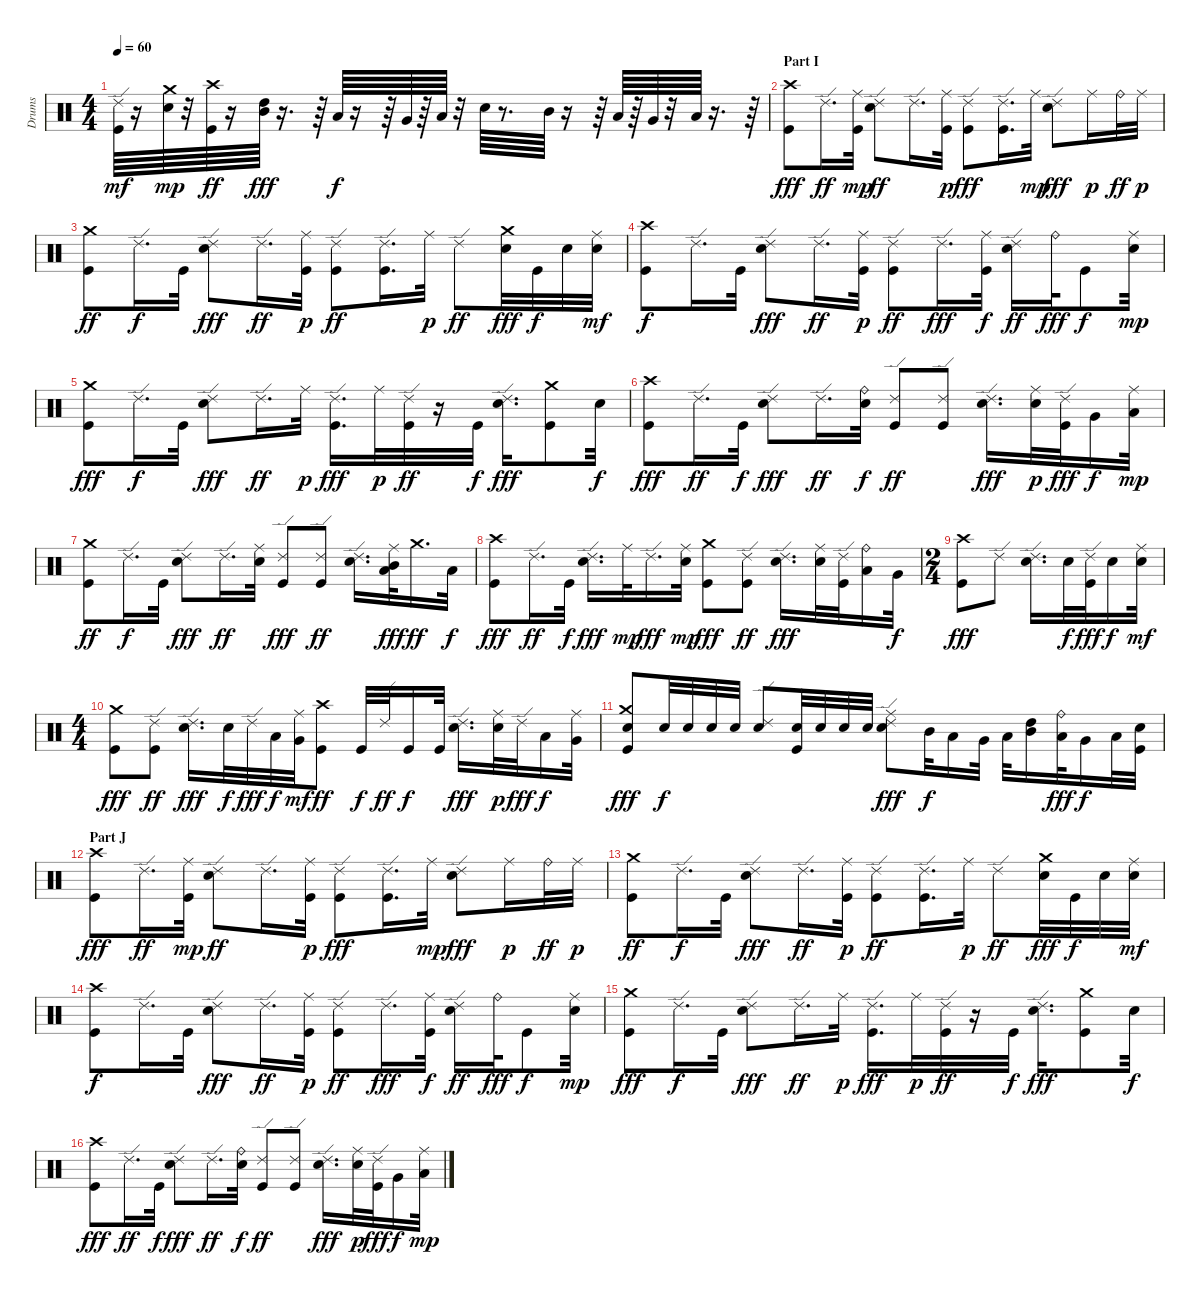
\track ("Drums" "Drums") {instrument percussion}
\staff {score}
\articulation defaults
\ts (4 4)
\tempo 60
\clef neutral
\ks c
("Ride (edge) 2" "Kick (hit)").64{dy mf} r.16 ("Crash medium (hit)" "Electric Snare (hit)").64{dy mp} r.32 ("Crash high (hit)" "Kick (hit)").64{dy ff} r.16 ("High Tom (hit)" "Mid Tom (hit)").64{dy fff} r.16{d} r.64 "Low Tom (hit)".64{dy f} r.16 r.64 "Very Low Tom (hit)".64 r.64 "Low Floor Tom (hit)".64 r.32 "Electric Snare (hit)".64 r.8{d} "Mid Tom (hit)".64 r.16 r.64 "Low Tom (hit)".64 r.64 "Very Low Tom (hit)".64 r.32 "Low Floor Tom (hit)".64 r.16{d} r.64 |
\section ("" "Part I")
("Crash high (hit)" "Kick (hit)").8{dy fff volume 13} "Ride (edge) 2".16{d dy ff} ("Ride (middle)" "Kick (hit)").32{dy mp} ("Ride (edge) 2" "Electric Snare (hit)").8{dy ff} "Ride (edge) 2".16{d} ("Ride (middle)" "Kick (hit)").32{dy p} ("Ride (edge) 2" "Kick (hit)").8{dy fff} ("Ride (edge) 2" "Kick (hit)").16{d} "Ride (middle)".32{dy mp} ("Ride (edge) 2" "Electric Snare (hit)").8{dy fff} "Ride (middle)".16{dy p} "Ride (bell)".32{dy ff} "Ride (middle)".32{dy p} |
("Crash medium (hit)" "Kick (hit)").8{dy ff} "Ride (edge) 2".16{d dy f} "Kick (hit)".32 ("Ride (edge) 2" "Electric Snare (hit)").8{dy fff} "Ride (edge) 2".16{d dy ff} ("Ride (middle)" "Kick (hit)").32{dy p} ("Ride (edge) 2" "Kick (hit)").8{dy ff} ("Ride (edge) 2" "Kick (hit)").16{d} "Ride (middle)".32{dy p} "Ride (edge) 2".8{dy ff} ("Crash medium (hit)" "Electric Snare (hit)").32{dy fff} "Kick (hit)".32{dy f} "Electric Snare (hit)".32 ("Ride (middle)" "Electric Snare (hit)").32{dy mf} |
("Crash high (hit)" "Kick (hit)").8{dy f} "Ride (edge) 2".16{d} "Kick (hit)".32 ("Ride (edge) 2" "Electric Snare (hit)").8{dy fff} "Ride (edge) 2".16{d dy ff} ("Ride (middle)" "Kick (hit)").32{dy p} ("Ride (edge) 2" "Kick (hit)").8{dy ff} "Ride (edge) 2".16{d dy fff} ("Ride (middle)" "Kick (hit)").32{dy f} ("Ride (edge) 2" "Electric Snare (hit)").16{dy ff} "Ride (bell)".32{dy fff} "Kick (hit)".8{dy f} ("Ride (middle)" "Electric Snare (hit)").32{dy mp} |
("Crash medium (hit)" "Kick (hit)").8{dy fff} "Ride (edge) 2".16{d dy f} "Kick (hit)".32 ("Ride (edge) 2" "Electric Snare (hit)").8{dy fff} "Ride (edge) 2".16{d dy ff} "Ride (middle)".32{dy p} ("Ride (edge) 2" "Kick (hit)").16{d dy fff} "Ride (middle)".32{dy p} ("Ride (edge) 2" "Kick (hit)").32{dy ff} r.16 "Kick (hit)".32{dy f} ("Ride (edge) 2" "Electric Snare (hit)").16{d dy fff} ("Crash medium (hit)" "Kick (hit)").8 "Electric Snare (hit)".32{dy f} |
("Crash high (hit)" "Kick (hit)").8{dy fff} "Ride (edge) 2".16{d dy ff} "Kick (hit)".32{dy f} ("Ride (edge) 2" "Electric Snare (hit)").8{dy fff} "Ride (edge) 2".16{d dy ff} ("Ride (bell)" "Electric Snare (hit)").32{dy f} ("Ride (edge) 2" "Kick (hit)").8{dy ff} ("Ride (edge) 2" "Kick (hit)").8 ("Ride (edge) 2" "Electric Snare (hit)").16{d dy fff} ("Ride (middle)" "Electric Snare (hit)").32{dy p} ("Ride (edge) 2" "Kick (hit)").32{dy fff} "Very Low Tom (hit)".16{dy f} ("Ride (middle)" "Low Floor Tom (hit)").32{dy mp} |
("Crash medium (hit)" "Kick (hit)").8{dy ff} "Ride (edge) 2".16{d dy f} "Kick (hit)".32 ("Ride (edge) 2" "Electric Snare (hit)").8{dy fff} "Ride (edge) 2".16{d dy ff} ("Ride (middle)" "Electric Snare (hit)").32 ("Ride (edge) 2" "Kick (hit)").8{dy fff} ("Ride (edge) 2" "Kick (hit)").8{dy ff} ("Ride (edge) 2" "Electric Snare (hit)").16{d} ("Ride (middle)" "Mid Tom (hit)" "Low Tom (hit)").32{dy fff} "Crash medium (hit)".16{d dy ff} "Low Floor Tom (hit)".32{dy f} |
("Crash high (hit)" "Kick (hit)").8{dy fff} "Ride (edge) 2".16{d dy ff} "Kick (hit)".32{dy f} ("Ride (edge) 2" "Electric Snare (hit)").16{d dy fff} "Ride (middle)".32{dy mp} "Ride (edge) 2".16{d dy fff} ("Ride (middle)" "Electric Snare (hit)").32{dy mp} ("Crash medium (hit)" "Kick (hit)").8{dy fff} ("Ride (edge) 2" "Kick (hit)").8{dy ff} ("Ride (edge) 2" "Electric Snare (hit)").16{d dy fff} ("Ride (middle)" "Electric Snare (hit)").32 ("Ride (edge) 2" "Kick (hit)").32 ("Ride (bell)" "Low Tom (hit)").16 "Very Low Tom (hit)".32{dy f} |
\ts (2 4)
("Crash high (hit)" "Kick (hit)").8{dy fff} "Ride (edge) 2".8 ("Ride (edge) 2" "Electric Snare (hit)").16{d} "Electric Snare (hit)".32{dy f} ("Ride (edge) 2" "Kick (hit)").32{dy fff} "Electric Snare (hit)".16{dy f} ("Ride (middle)" "Electric Snare (hit)").32{dy mf} |
\ts (4 4)
("Crash medium (hit)" "Kick (hit)").8{dy fff} ("Ride (edge) 2" "Kick (hit)").8{dy ff} ("Ride (edge) 2" "Electric Snare (hit)").16{d dy fff} "Electric Snare (hit)".32{dy f} "Ride (edge) 2".32{dy fff} "Low Tom (hit)".32{dy f} ("Ride (middle)" "Very Low Tom (hit)").32{dy mf} ("Crash high (hit)" "Kick (hit)").8{dy ff} "Kick (hit)".32{dy f} "Ride (edge) 2".32{dy ff} "Kick (hit)".16{dy f} "Kick (hit)".32 ("Ride (edge) 2" "Electric Snare (hit)").16{d dy fff} ("Ride (middle)" "Electric Snare (hit)").32{dy p} "Ride (edge) 2".32{dy fff} "Low Tom (hit)".16{dy f} ("Ride (middle)" "Very Low Tom (hit)").32 |
("Crash medium (hit)" "Electric Snare (hit)" "Kick (hit)").8{dy fff} "Electric Snare (hit)".32{dy f} "Electric Snare (hit)".32 "Electric Snare (hit)".32 "Electric Snare (hit)".32 ("Ride (edge) 2" "Electric Snare (hit)").8 ("Electric Snare (hit)" "Kick (hit)").32 "Electric Snare (hit)".32 "Electric Snare (hit)".32 "Electric Snare (hit)".32 ("Ride (edge) 2" "Ride (middle)" "Electric Snare (hit)").8{dy fff} "Mid Tom (hit)".32{dy f} "Low Tom (hit)".16 "Very Low Tom (hit)".32 "Low Floor Tom (hit)".32 ("High Tom (hit)" "Mid Tom (hit)").16 ("Ride (bell)" "Low Tom (hit)").32{dy fff} "Very Low Tom (hit)".16{dy f} "Low Floor Tom (hit)".32 ("Electric Snare (hit)" "Kick (hit)").32 |
\section ("" "Part J")
("Crash high (hit)" "Kick (hit)").8{dy fff volume 13} "Ride (edge) 2".16{d dy ff} ("Ride (middle)" "Kick (hit)").32{dy mp} ("Ride (edge) 2" "Electric Snare (hit)").8{dy ff} "Ride (edge) 2".16{d} ("Ride (middle)" "Kick (hit)").32{dy p} ("Ride (edge) 2" "Kick (hit)").8{dy fff} ("Ride (edge) 2" "Kick (hit)").16{d} "Ride (middle)".32{dy mp} ("Ride (edge) 2" "Electric Snare (hit)").8{dy fff} "Ride (middle)".16{dy p} "Ride (bell)".32{dy ff} "Ride (middle)".32{dy p} |
("Crash medium (hit)" "Kick (hit)").8{dy ff} "Ride (edge) 2".16{d dy f} "Kick (hit)".32 ("Ride (edge) 2" "Electric Snare (hit)").8{dy fff} "Ride (edge) 2".16{d dy ff} ("Ride (middle)" "Kick (hit)").32{dy p} ("Ride (edge) 2" "Kick (hit)").8{dy ff} ("Ride (edge) 2" "Kick (hit)").16{d} "Ride (middle)".32{dy p} "Ride (edge) 2".8{dy ff} ("Crash medium (hit)" "Electric Snare (hit)").32{dy fff} "Kick (hit)".32{dy f} "Electric Snare (hit)".32 ("Ride (middle)" "Electric Snare (hit)").32{dy mf} |
("Crash high (hit)" "Kick (hit)").8{dy f} "Ride (edge) 2".16{d} "Kick (hit)".32 ("Ride (edge) 2" "Electric Snare (hit)").8{dy fff} "Ride (edge) 2".16{d dy ff} ("Ride (middle)" "Kick (hit)").32{dy p} ("Ride (edge) 2" "Kick (hit)").8{dy ff} "Ride (edge) 2".16{d dy fff} ("Ride (middle)" "Kick (hit)").32{dy f} ("Ride (edge) 2" "Electric Snare (hit)").16{dy ff} "Ride (bell)".32{dy fff} "Kick (hit)".8{dy f} ("Ride (middle)" "Electric Snare (hit)").32{dy mp} |
("Crash medium (hit)" "Kick (hit)").8{dy fff} "Ride (edge) 2".16{d dy f} "Kick (hit)".32 ("Ride (edge) 2" "Electric Snare (hit)").8{dy fff} "Ride (edge) 2".16{d dy ff} "Ride (middle)".32{dy p} ("Ride (edge) 2" "Kick (hit)").16{d dy fff} "Ride (middle)".32{dy p} ("Ride (edge) 2" "Kick (hit)").32{dy ff} r.16 "Kick (hit)".32{dy f} ("Ride (edge) 2" "Electric Snare (hit)").16{d dy fff} ("Crash medium (hit)" "Kick (hit)").8 "Electric Snare (hit)".32{dy f} |
("Crash high (hit)" "Kick (hit)").8{dy fff} "Ride (edge) 2".16{d dy ff} "Kick (hit)".32{dy f} ("Ride (edge) 2" "Electric Snare (hit)").8{dy fff} "Ride (edge) 2".16{d dy ff} ("Ride (bell)" "Electric Snare (hit)").32{dy f} ("Ride (edge) 2" "Kick (hit)").8{dy ff} ("Ride (edge) 2" "Kick (hit)").8 ("Ride (edge) 2" "Electric Snare (hit)").16{d dy fff} ("Ride (middle)" "Electric Snare (hit)").32{dy p} ("Ride (edge) 2" "Kick (hit)").32{dy fff} "Very Low Tom (hit)".16{dy f} ("Ride (middle)" "Low Floor Tom (hit)").32{dy mp}
